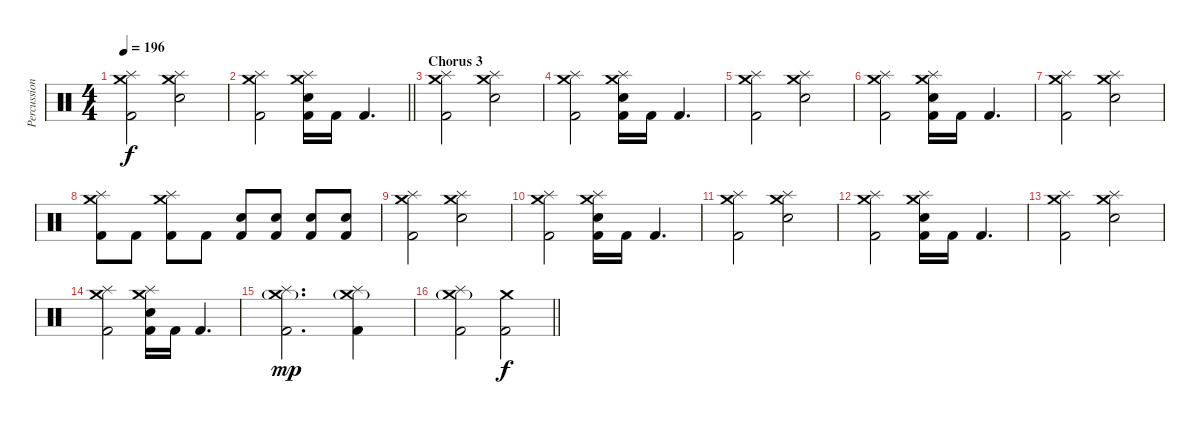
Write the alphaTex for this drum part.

\track ("Percussion" "Percussion") {instrument percussion}
\staff {score}
\articulation defaults
\ts (4 4)
\tempo 196
\clef neutral
\ks c
("Splash (hit)" "Crash medium (hit)" "Kick (hit) 2").2{dy f} ("Crash medium (hit)" "Splash (hit)" "Electric Snare (hit)").2 |
\barLineRight lightlight
("Crash medium (hit)" "Splash (hit)" "Kick (hit) 2").2 ("Crash medium (hit)" "Splash (hit)" "Electric Snare (hit)" "Kick (hit) 2").16 "Kick (hit) 2".16 "Kick (hit) 2".4{d} |
\section ("" "Chorus 3")
("Crash medium (hit)" "Splash (hit)" "Kick (hit) 2").2 ("Crash medium (hit)" "Splash (hit)" "Electric Snare (hit)").2 |
("Crash medium (hit)" "Splash (hit)" "Kick (hit) 2").2 ("Crash medium (hit)" "Splash (hit)" "Electric Snare (hit)" "Kick (hit) 2").16 "Kick (hit) 2".16 "Kick (hit) 2".4{d} |
("Crash medium (hit)" "Splash (hit)" "Kick (hit) 2").2 ("Crash medium (hit)" "Splash (hit)" "Electric Snare (hit)").2 |
("Crash medium (hit)" "Splash (hit)" "Kick (hit) 2").2 ("Crash medium (hit)" "Splash (hit)" "Electric Snare (hit)" "Kick (hit) 2").16 "Kick (hit) 2".16 "Kick (hit) 2".4{d} |
("Crash medium (hit)" "Splash (hit)" "Kick (hit) 2").2 ("Crash medium (hit)" "Splash (hit)" "Electric Snare (hit)").2 |
("Splash (hit)" "Crash medium (hit)" "Kick (hit) 2").8 "Kick (hit) 2".8 ("Splash (hit)" "Crash medium (hit)" "Kick (hit) 2").8 "Kick (hit) 2".8 ("Electric Snare (hit)" "Kick (hit) 2").8 ("Electric Snare (hit)" "Kick (hit) 2").8 ("Electric Snare (hit)" "Kick (hit) 2").8 ("Electric Snare (hit)" "Kick (hit) 2").8 |
("Splash (hit)" "Crash medium (hit)" "Kick (hit) 2").2 ("Splash (hit)" "Crash medium (hit)" "Electric Snare (hit)").2 |
("Splash (hit)" "Crash medium (hit)" "Kick (hit) 2").2 ("Splash (hit)" "Crash medium (hit)" "Electric Snare (hit)" "Kick (hit) 2").16 "Kick (hit) 2".16 "Kick (hit) 2".4{d} |
("Splash (hit)" "Crash medium (hit)" "Kick (hit) 2").2 ("Splash (hit)" "Crash medium (hit)" "Electric Snare (hit)").2 |
("Splash (hit)" "Crash medium (hit)" "Kick (hit) 2").2 ("Splash (hit)" "Crash medium (hit)" "Electric Snare (hit)" "Kick (hit) 2").16 "Kick (hit) 2".16 "Kick (hit) 2".4{d} |
("Splash (hit)" "Crash medium (hit)" "Kick (hit) 2").2 ("Splash (hit)" "Crash medium (hit)" "Electric Snare (hit)").2 |
("Splash (hit)" "Crash medium (hit)" "Kick (hit) 2").2 ("Splash (hit)" "Crash medium (hit)" "Electric Snare (hit)" "Kick (hit) 2").16 "Kick (hit) 2".16 "Kick (hit) 2".4{d} |
("Splash (hit)" "Crash medium (hit)"{g} "Kick (hit) 2").2{d dy mp} ("Splash (hit)" "Crash medium (hit)"{g} "Kick (hit) 2").4 |
\barLineRight lightlight
("Splash (hit)" "Crash medium (hit)"{g} "Kick (hit) 2").2 ("Crash medium (hit)" "Kick (hit) 2").2{dy f}
